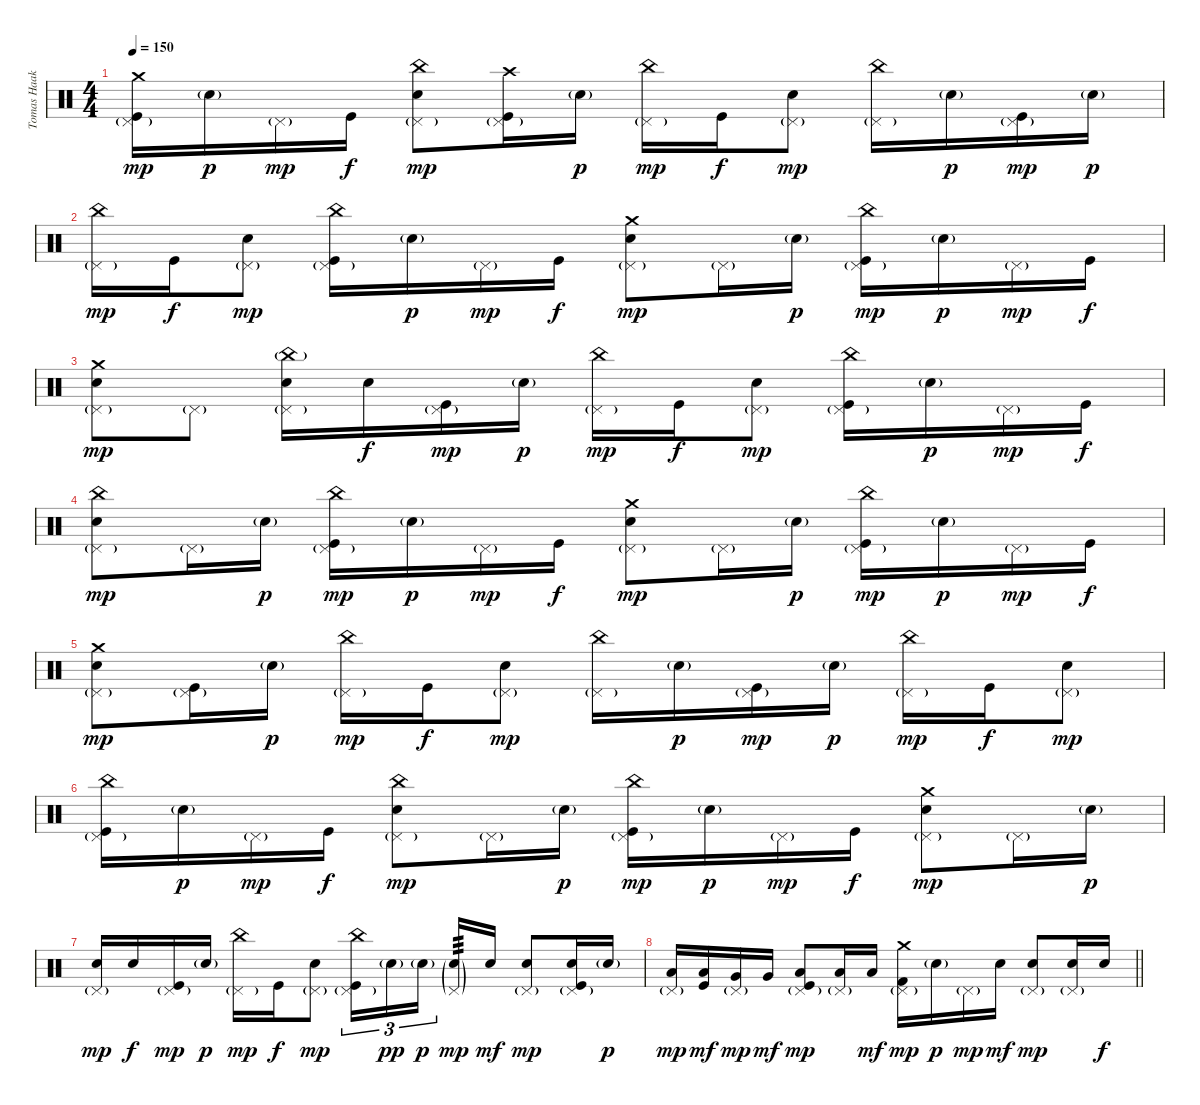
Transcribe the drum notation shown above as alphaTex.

\track ("Tomas Haake (Drums)" "Tomas Haak") {instrument percussion}
\staff {score}
\articulation defaults
\ts (4 4)
\tempo 150
\clef neutral
\ks c
("Crash medium (hit)" "Pedal Hi-Hat (hit)"{g} "Kick (hit)").16{dy mp} "Electric Snare (hit)"{g}.16{dy p} "Pedal Hi-Hat (hit)"{g}.16{dy mp} "Kick (hit)".16{dy f} ("China (hit)" "Pedal Hi-Hat (hit)"{g} "Electric Snare (hit)").8{dy mp} ("Crash high (hit)" "Pedal Hi-Hat (hit)"{g} "Kick (hit)").16 "Electric Snare (hit)"{g}.16{dy p} ("China (hit)" "Pedal Hi-Hat (hit)"{g}).16{dy mp} "Kick (hit)".16{dy f} ("Pedal Hi-Hat (hit)"{g} "Electric Snare (hit)").8{dy mp} ("China (hit)" "Pedal Hi-Hat (hit)"{g}).16 "Electric Snare (hit)"{g}.16{dy p} ("Pedal Hi-Hat (hit)"{g} "Kick (hit)").16{dy mp} "Electric Snare (hit)"{g}.16{dy p} |
("China (hit)" "Pedal Hi-Hat (hit)"{g}).16{dy mp} "Kick (hit)".16{dy f} ("Pedal Hi-Hat (hit)"{g} "Electric Snare (hit)").8{dy mp} ("China (hit)" "Pedal Hi-Hat (hit)"{g} "Kick (hit)").16 "Electric Snare (hit)"{g}.16{dy p} "Pedal Hi-Hat (hit)"{g}.16{dy mp} "Kick (hit)".16{dy f} ("Crash medium (hit)" "Pedal Hi-Hat (hit)"{g} "Electric Snare (hit)").8{dy mp} "Pedal Hi-Hat (hit)"{g}.16 "Electric Snare (hit)"{g}.16{dy p} ("China (hit)" "Pedal Hi-Hat (hit)"{g} "Kick (hit)").16{dy mp} "Electric Snare (hit)"{g}.16{dy p} "Pedal Hi-Hat (hit)"{g}.16{dy mp} "Kick (hit)".16{dy f} |
("Crash medium (hit)" "Pedal Hi-Hat (hit)"{g} "Electric Snare (hit)").8{dy mp} "Pedal Hi-Hat (hit)"{g}.8 ("China (hit)"{g} "Pedal Hi-Hat (hit)"{g} "Electric Snare (hit)").16 "Electric Snare (hit)".16{dy f} ("Pedal Hi-Hat (hit)"{g} "Kick (hit)").16{dy mp} "Electric Snare (hit)"{g}.16{dy p} ("China (hit)" "Pedal Hi-Hat (hit)"{g}).16{dy mp} "Kick (hit)".16{dy f} ("Pedal Hi-Hat (hit)"{g} "Electric Snare (hit)").8{dy mp} ("China (hit)" "Pedal Hi-Hat (hit)"{g} "Kick (hit)").16 "Electric Snare (hit)"{g}.16{dy p} "Pedal Hi-Hat (hit)"{g}.16{dy mp} "Kick (hit)".16{dy f} |
("China (hit)" "Pedal Hi-Hat (hit)"{g} "Electric Snare (hit)").8{dy mp} "Pedal Hi-Hat (hit)"{g}.16 "Electric Snare (hit)"{g}.16{dy p} ("China (hit)" "Pedal Hi-Hat (hit)"{g} "Kick (hit)").16{dy mp} "Electric Snare (hit)"{g}.16{dy p} "Pedal Hi-Hat (hit)"{g}.16{dy mp} "Kick (hit)".16{dy f} ("Crash medium (hit)" "Pedal Hi-Hat (hit)"{g} "Electric Snare (hit)").8{dy mp} "Pedal Hi-Hat (hit)"{g}.16 "Electric Snare (hit)"{g}.16{dy p} ("China (hit)" "Pedal Hi-Hat (hit)"{g} "Kick (hit)").16{dy mp} "Electric Snare (hit)"{g}.16{dy p} "Pedal Hi-Hat (hit)"{g}.16{dy mp} "Kick (hit)".16{dy f} |
("Crash medium (hit)" "Pedal Hi-Hat (hit)"{g} "Electric Snare (hit)").8{dy mp} ("Pedal Hi-Hat (hit)"{g} "Kick (hit)").16 "Electric Snare (hit)"{g}.16{dy p} ("China (hit)" "Pedal Hi-Hat (hit)"{g}).16{dy mp} "Kick (hit)".16{dy f} ("Pedal Hi-Hat (hit)"{g} "Electric Snare (hit)").8{dy mp} ("China (hit)" "Pedal Hi-Hat (hit)"{g}).16 "Electric Snare (hit)"{g}.16{dy p} ("Pedal Hi-Hat (hit)"{g} "Kick (hit)").16{dy mp} "Electric Snare (hit)"{g}.16{dy p} ("China (hit)" "Pedal Hi-Hat (hit)"{g}).16{dy mp} "Kick (hit)".16{dy f} ("Pedal Hi-Hat (hit)"{g} "Electric Snare (hit)").8{dy mp} |
("China (hit)" "Pedal Hi-Hat (hit)"{g} "Kick (hit)").16 "Electric Snare (hit)"{g}.16{dy p} "Pedal Hi-Hat (hit)"{g}.16{dy mp} "Kick (hit)".16{dy f} ("China (hit)" "Pedal Hi-Hat (hit)"{g} "Electric Snare (hit)").8{dy mp} "Pedal Hi-Hat (hit)"{g}.16 "Electric Snare (hit)"{g}.16{dy p} ("China (hit)" "Pedal Hi-Hat (hit)"{g} "Kick (hit)").16{dy mp} "Electric Snare (hit)"{g}.16{dy p} "Pedal Hi-Hat (hit)"{g}.16{dy mp} "Kick (hit)".16{dy f} ("Crash medium (hit)" "Pedal Hi-Hat (hit)"{g} "Electric Snare (hit)").8{dy mp} "Pedal Hi-Hat (hit)"{g}.16 "Electric Snare (hit)"{g}.16{dy p} |
("Pedal Hi-Hat (hit)"{g} "Electric Snare (hit)").16{dy mp} "Electric Snare (hit)".16{dy f} ("Pedal Hi-Hat (hit)"{g} "Kick (hit)").16{dy mp} "Electric Snare (hit)"{g}.16{dy p} ("China (hit)" "Pedal Hi-Hat (hit)"{g}).16{dy mp} "Kick (hit)".16{dy f} ("Pedal Hi-Hat (hit)"{g} "Electric Snare (hit)").8{dy mp} ("China (hit)" "Pedal Hi-Hat (hit)"{g} "Kick (hit)").16{tu (3 2)} "Electric Snare (hit)"{g}.16{tu (3 2) dy pp} "Electric Snare (hit)"{g}.16{tu (3 2) dy p beam splitsecondary} ("Pedal Hi-Hat (hit)"{g} "Electric Snare (hit)"{g}).16{tp 3 dy mp} "Electric Snare (hit)".16{dy mf} ("Pedal Hi-Hat (hit)"{g} "Electric Snare (hit)").8{dy mp} ("Pedal Hi-Hat (hit)"{g} "Electric Snare (hit)" "Kick (hit)").16 "Electric Snare (hit)"{g}.16{dy p} |
\barLineRight lightlight
("Pedal Hi-Hat (hit)"{g} "Low Tom (hit)").16{dy mp} ("Low Tom (hit)" "Kick (hit)").16{dy mf} ("Pedal Hi-Hat (hit)"{g} "Very Low Tom (hit)").16{dy mp} "Very Low Tom (hit)".16{dy mf} ("Pedal Hi-Hat (hit)"{g} "Low Floor Tom (hit)" "Kick (hit)").8{dy mp} ("Pedal Hi-Hat (hit)"{g} "Low Floor Tom (hit)").16 "Low Floor Tom (hit)".16{dy mf} ("Crash medium (hit)" "Pedal Hi-Hat (hit)"{g} "Kick (hit) 2").16{dy mp} "Electric Snare (hit)"{g}.16{dy p} "Pedal Hi-Hat (hit)"{g}.16{dy mp} "Electric Snare (hit)".16{dy mf} ("Pedal Hi-Hat (hit)"{g} "Electric Snare (hit)").8{dy mp} ("Pedal Hi-Hat (hit)"{g} "Electric Snare (hit)").16 "Electric Snare (hit)".16{dy f}
